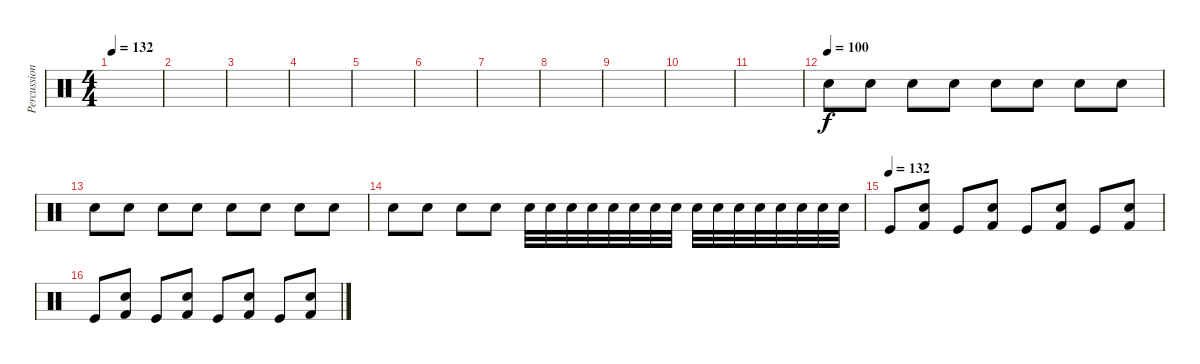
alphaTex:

\track ("Percussion" "Percussion") {instrument percussion}
\staff {score}
\articulation defaults
\ts (4 4)
\tempo 132
\tempo 70
\tempo 132
\clef neutral
\ks c
|
|
|
|
|
|
|
|
|
|
|
\tempo (100)
"Metronome (bell)".8 "Metronome (bell)".8 "Metronome (bell)".8 "Metronome (bell)".8 "Metronome (bell)".8 "Metronome (bell)".8 "Metronome (bell)".8 "Metronome (bell)".8 |
"Metronome (bell)".8 "Metronome (bell)".8 "Metronome (bell)".8 "Metronome (bell)".8 "Metronome (bell)".8 "Metronome (bell)".8 "Metronome (bell)".8 "Metronome (bell)".8 |
"Metronome (bell)".8 "Metronome (bell)".8 "Metronome (bell)".8 "Metronome (bell)".8 "Metronome (bell)".32 "Metronome (bell)".32 "Metronome (bell)".32 "Metronome (bell)".32 "Metronome (bell)".32 "Metronome (bell)".32 "Metronome (bell)".32 "Metronome (bell)".32 "Metronome (bell)".32 "Metronome (bell)".32 "Metronome (bell)".32 "Metronome (bell)".32 "Metronome (bell)".32 "Metronome (bell)".32 "Metronome (bell)".32 "Metronome (bell)".32 |
\tempo (132)
"Kick (hit)".8 ("Electric Snare (hit)" "Kick (hit) 2").8 "Kick (hit)".8 ("Electric Snare (hit)" "Kick (hit) 2").8 "Kick (hit)".8 ("Electric Snare (hit)" "Kick (hit) 2").8 "Kick (hit)".8 ("Electric Snare (hit)" "Kick (hit) 2").8 |
"Kick (hit)".8 ("Electric Snare (hit)" "Kick (hit) 2").8 "Kick (hit)".8 ("Electric Snare (hit)" "Kick (hit) 2").8 "Kick (hit)".8 ("Electric Snare (hit)" "Kick (hit) 2").8 "Kick (hit)".8 ("Electric Snare (hit)" "Kick (hit) 2").8
